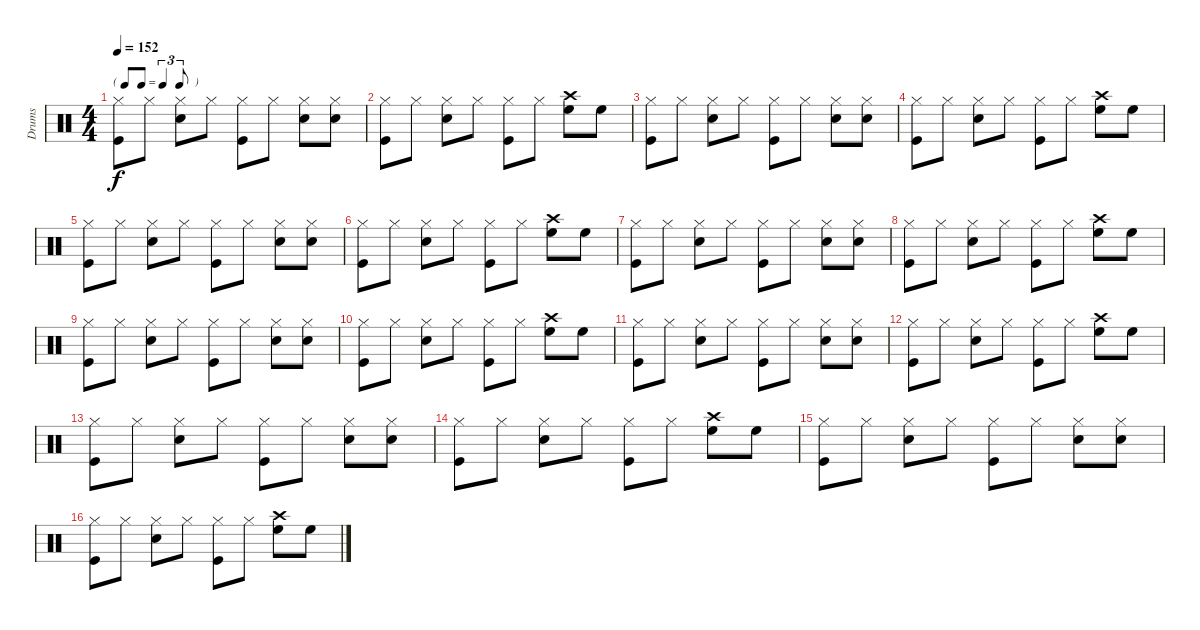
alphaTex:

\track ("Drums" "Drums") {instrument percussion}
\staff {score}
\articulation defaults
\ts (4 4)
\tf triplet8th
\tempo 152
\clef neutral
\ks c
("Hi-Hat (closed)" "Kick (hit)").8{dy f} "Hi-Hat (closed)".8 ("Hi-Hat (closed)" "Snare (hit) 2").8 "Hi-Hat (closed)".8 ("Hi-Hat (closed)" "Kick (hit)").8 "Hi-Hat (closed)".8 ("Hi-Hat (closed)" "Snare (hit) 2").8 ("Hi-Hat (closed)" "Snare (hit) 2").8 |
("Hi-Hat (closed)" "Kick (hit)").8 "Hi-Hat (closed)".8 ("Hi-Hat (closed)" "Snare (hit) 2").8 "Hi-Hat (closed)".8 ("Hi-Hat (closed)" "Kick (hit)").8 "Hi-Hat (closed)".8 ("Crash high (hit)" "High Floor Tom (hit)").8 "High Floor Tom (hit)".8 |
("Hi-Hat (closed)" "Kick (hit)").8 "Hi-Hat (closed)".8 ("Hi-Hat (closed)" "Snare (hit) 2").8 "Hi-Hat (closed)".8 ("Hi-Hat (closed)" "Kick (hit)").8 "Hi-Hat (closed)".8 ("Hi-Hat (closed)" "Snare (hit) 2").8 ("Hi-Hat (closed)" "Snare (hit) 2").8 |
("Hi-Hat (closed)" "Kick (hit)").8 "Hi-Hat (closed)".8 ("Hi-Hat (closed)" "Snare (hit) 2").8 "Hi-Hat (closed)".8 ("Hi-Hat (closed)" "Kick (hit)").8 "Hi-Hat (closed)".8 ("Crash high (hit)" "High Floor Tom (hit)").8 "High Floor Tom (hit)".8 |
("Hi-Hat (closed)" "Kick (hit)").8 "Hi-Hat (closed)".8 ("Hi-Hat (closed)" "Snare (hit) 2").8 "Hi-Hat (closed)".8 ("Hi-Hat (closed)" "Kick (hit)").8 "Hi-Hat (closed)".8 ("Hi-Hat (closed)" "Snare (hit) 2").8 ("Hi-Hat (closed)" "Snare (hit) 2").8 |
("Hi-Hat (closed)" "Kick (hit)").8 "Hi-Hat (closed)".8 ("Hi-Hat (closed)" "Snare (hit) 2").8 "Hi-Hat (closed)".8 ("Hi-Hat (closed)" "Kick (hit)").8 "Hi-Hat (closed)".8 ("Crash high (hit)" "High Floor Tom (hit)").8 "High Floor Tom (hit)".8 |
("Hi-Hat (closed)" "Kick (hit)").8 "Hi-Hat (closed)".8 ("Hi-Hat (closed)" "Snare (hit) 2").8 "Hi-Hat (closed)".8 ("Hi-Hat (closed)" "Kick (hit)").8 "Hi-Hat (closed)".8 ("Hi-Hat (closed)" "Snare (hit) 2").8 ("Hi-Hat (closed)" "Snare (hit) 2").8 |
("Hi-Hat (closed)" "Kick (hit)").8 "Hi-Hat (closed)".8 ("Hi-Hat (closed)" "Snare (hit) 2").8 "Hi-Hat (closed)".8 ("Hi-Hat (closed)" "Kick (hit)").8 "Hi-Hat (closed)".8 ("Crash high (hit)" "High Floor Tom (hit)").8 "High Floor Tom (hit)".8 |
("Hi-Hat (closed)" "Kick (hit)").8 "Hi-Hat (closed)".8 ("Hi-Hat (closed)" "Snare (hit) 2").8 "Hi-Hat (closed)".8 ("Hi-Hat (closed)" "Kick (hit)").8 "Hi-Hat (closed)".8 ("Hi-Hat (closed)" "Snare (hit) 2").8 ("Hi-Hat (closed)" "Snare (hit) 2").8 |
("Hi-Hat (closed)" "Kick (hit)").8 "Hi-Hat (closed)".8 ("Hi-Hat (closed)" "Snare (hit) 2").8 "Hi-Hat (closed)".8 ("Hi-Hat (closed)" "Kick (hit)").8 "Hi-Hat (closed)".8 ("Crash high (hit)" "High Floor Tom (hit)").8 "High Floor Tom (hit)".8 |
("Hi-Hat (closed)" "Kick (hit)").8 "Hi-Hat (closed)".8 ("Hi-Hat (closed)" "Snare (hit) 2").8 "Hi-Hat (closed)".8 ("Hi-Hat (closed)" "Kick (hit)").8 "Hi-Hat (closed)".8 ("Hi-Hat (closed)" "Snare (hit) 2").8 ("Hi-Hat (closed)" "Snare (hit) 2").8 |
("Hi-Hat (closed)" "Kick (hit)").8 "Hi-Hat (closed)".8 ("Hi-Hat (closed)" "Snare (hit) 2").8 "Hi-Hat (closed)".8 ("Hi-Hat (closed)" "Kick (hit)").8 "Hi-Hat (closed)".8 ("Crash high (hit)" "High Floor Tom (hit)").8 "High Floor Tom (hit)".8 |
("Hi-Hat (closed)" "Kick (hit)").8 "Hi-Hat (closed)".8 ("Hi-Hat (closed)" "Snare (hit) 2").8 "Hi-Hat (closed)".8 ("Hi-Hat (closed)" "Kick (hit)").8 "Hi-Hat (closed)".8 ("Hi-Hat (closed)" "Snare (hit) 2").8 ("Hi-Hat (closed)" "Snare (hit) 2").8 |
("Hi-Hat (closed)" "Kick (hit)").8 "Hi-Hat (closed)".8 ("Hi-Hat (closed)" "Snare (hit) 2").8 "Hi-Hat (closed)".8 ("Hi-Hat (closed)" "Kick (hit)").8 "Hi-Hat (closed)".8 ("Crash high (hit)" "High Floor Tom (hit)").8 "High Floor Tom (hit)".8 |
("Hi-Hat (closed)" "Kick (hit)").8 "Hi-Hat (closed)".8 ("Hi-Hat (closed)" "Snare (hit) 2").8 "Hi-Hat (closed)".8 ("Hi-Hat (closed)" "Kick (hit)").8 "Hi-Hat (closed)".8 ("Hi-Hat (closed)" "Snare (hit) 2").8 ("Hi-Hat (closed)" "Snare (hit) 2").8 |
("Hi-Hat (closed)" "Kick (hit)").8 "Hi-Hat (closed)".8 ("Hi-Hat (closed)" "Snare (hit) 2").8 "Hi-Hat (closed)".8 ("Hi-Hat (closed)" "Kick (hit)").8 "Hi-Hat (closed)".8 ("Crash high (hit)" "High Floor Tom (hit)").8 "High Floor Tom (hit)".8
